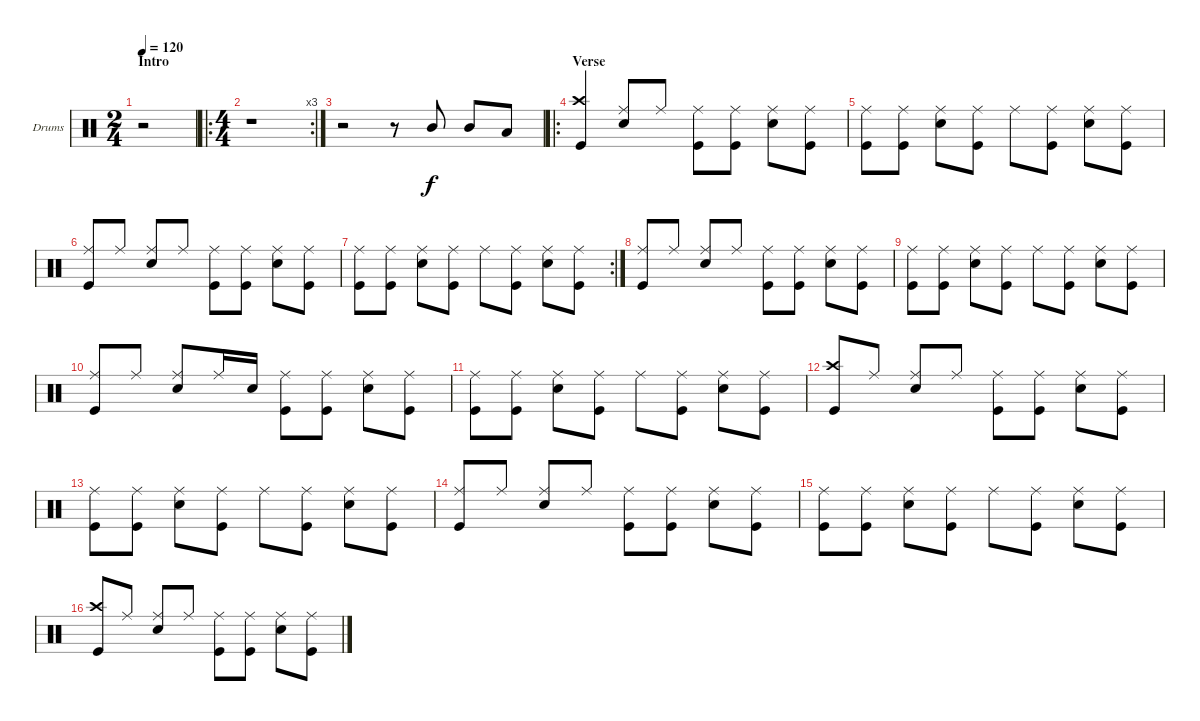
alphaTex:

\defaultSystemsLayout 4
\bracketExtendMode groupsimilarinstruments
\firstSystemTrackNameOrientation horizontal
\otherSystemsTrackNameOrientation horizontal
\track ("Drumkit" "Drums") {mute instrument percussion}
\staff {score}
\articulation defaults
\ts (2 4)
\section ("" "Intro")
\tempo 120
\clef neutral
\scale
0.218346
\ks c
r.2{dy f} |
\ro
\rc 3
\ts (4 4)
\scale
0.37274 r.1 |
\scale
0.408405 r.2 r.8 "Mid Tom (hit)".8{beam invert} "Mid Tom (hit)".8 "Low Tom (hit)".8 |
\ro
\section ("" "Verse")
("Kick (hit)" "Crash high (hit)").4 ("Snare (hit) 2" "Ride (middle)").8{beam invert} "Ride (middle)".8 ("Kick (hit)" "Ride (middle)").8 ("Kick (hit)" "Ride (middle)").8 ("Snare (hit) 2" "Ride (middle)").8 ("Kick (hit)" "Ride (middle)").8 |
("Kick (hit)" "Ride (middle)").8 ("Kick (hit)" "Ride (middle)").8 ("Snare (hit) 2" "Ride (middle)").8 ("Kick (hit)" "Ride (middle)").8 "Ride (middle)".8 ("Kick (hit)" "Ride (middle)").8 ("Snare (hit) 2" "Ride (middle)").8 ("Kick (hit)" "Ride (middle)").8 |
("Kick (hit)" "Ride (middle)").8{beam invert} "Ride (middle)".8 ("Snare (hit) 2" "Ride (middle)").8{beam invert} "Ride (middle)".8 ("Kick (hit)" "Ride (middle)").8 ("Kick (hit)" "Ride (middle)").8 ("Snare (hit) 2" "Ride (middle)").8 ("Kick (hit)" "Ride (middle)").8 |
\rc 2
("Kick (hit)" "Ride (middle)").8 ("Kick (hit)" "Ride (middle)").8 ("Snare (hit) 2" "Ride (middle)").8 ("Kick (hit)" "Ride (middle)").8 "Ride (middle)".8 ("Kick (hit)" "Ride (middle)").8 ("Snare (hit) 2" "Ride (middle)").8 ("Kick (hit)" "Ride (middle)").8 |
("Kick (hit)" "Ride (middle)").8{beam invert} "Ride (middle)".8 ("Snare (hit) 2" "Ride (middle)").8{beam invert} "Ride (middle)".8 ("Kick (hit)" "Ride (middle)").8 ("Kick (hit)" "Ride (middle)").8 ("Snare (hit) 2" "Ride (middle)").8 ("Kick (hit)" "Ride (middle)").8 |
("Kick (hit)" "Ride (middle)").8 ("Kick (hit)" "Ride (middle)").8 ("Snare (hit) 2" "Ride (middle)").8 ("Kick (hit)" "Ride (middle)").8 "Ride (middle)".8 ("Kick (hit)" "Ride (middle)").8 ("Snare (hit) 2" "Ride (middle)").8 ("Kick (hit)" "Ride (middle)").8 |
("Kick (hit)" "Ride (middle)").8{beam invert} "Ride (middle)".8 ("Snare (hit) 2" "Ride (middle)").8{beam invert} "Ride (middle)".16 "Snare (hit) 2".16 ("Kick (hit)" "Ride (middle)").8 ("Kick (hit)" "Ride (middle)").8 ("Snare (hit) 2" "Ride (middle)").8 ("Kick (hit)" "Ride (middle)").8 |
("Kick (hit)" "Ride (middle)").8 ("Kick (hit)" "Ride (middle)").8 ("Snare (hit) 2" "Ride (middle)").8 ("Kick (hit)" "Ride (middle)").8 "Ride (middle)".8 ("Kick (hit)" "Ride (middle)").8 ("Snare (hit) 2" "Ride (middle)").8 ("Kick (hit)" "Ride (middle)").8 |
("Kick (hit)" "Crash high (hit)").8 "Ride (middle)".8 ("Snare (hit) 2" "Ride (middle)").8{beam invert} "Ride (middle)".8 ("Kick (hit)" "Ride (middle)").8 ("Kick (hit)" "Ride (middle)").8 ("Snare (hit) 2" "Ride (middle)").8 ("Kick (hit)" "Ride (middle)").8 |
("Kick (hit)" "Ride (middle)").8 ("Kick (hit)" "Ride (middle)").8 ("Snare (hit) 2" "Ride (middle)").8 ("Kick (hit)" "Ride (middle)").8 "Ride (middle)".8 ("Kick (hit)" "Ride (middle)").8 ("Snare (hit) 2" "Ride (middle)").8 ("Kick (hit)" "Ride (middle)").8 |
("Kick (hit)" "Ride (middle)").8{beam invert} "Ride (middle)".8 ("Snare (hit) 2" "Ride (middle)").8{beam invert} "Ride (middle)".8 ("Kick (hit)" "Ride (middle)").8 ("Kick (hit)" "Ride (middle)").8 ("Snare (hit) 2" "Ride (middle)").8 ("Kick (hit)" "Ride (middle)").8 |
("Kick (hit)" "Ride (middle)").8 ("Kick (hit)" "Ride (middle)").8 ("Snare (hit) 2" "Ride (middle)").8 ("Kick (hit)" "Ride (middle)").8 "Ride (middle)".8 ("Kick (hit)" "Ride (middle)").8 ("Snare (hit) 2" "Ride (middle)").8 ("Kick (hit)" "Ride (middle)").8 |
("Kick (hit)" "Crash high (hit)").8 "Ride (middle)".8 ("Snare (hit) 2" "Ride (middle)").8{beam invert} "Ride (middle)".8 ("Kick (hit)" "Ride (middle)").8 ("Kick (hit)" "Ride (middle)").8 ("Snare (hit) 2" "Ride (middle)").8 ("Kick (hit)" "Ride (middle)").8
